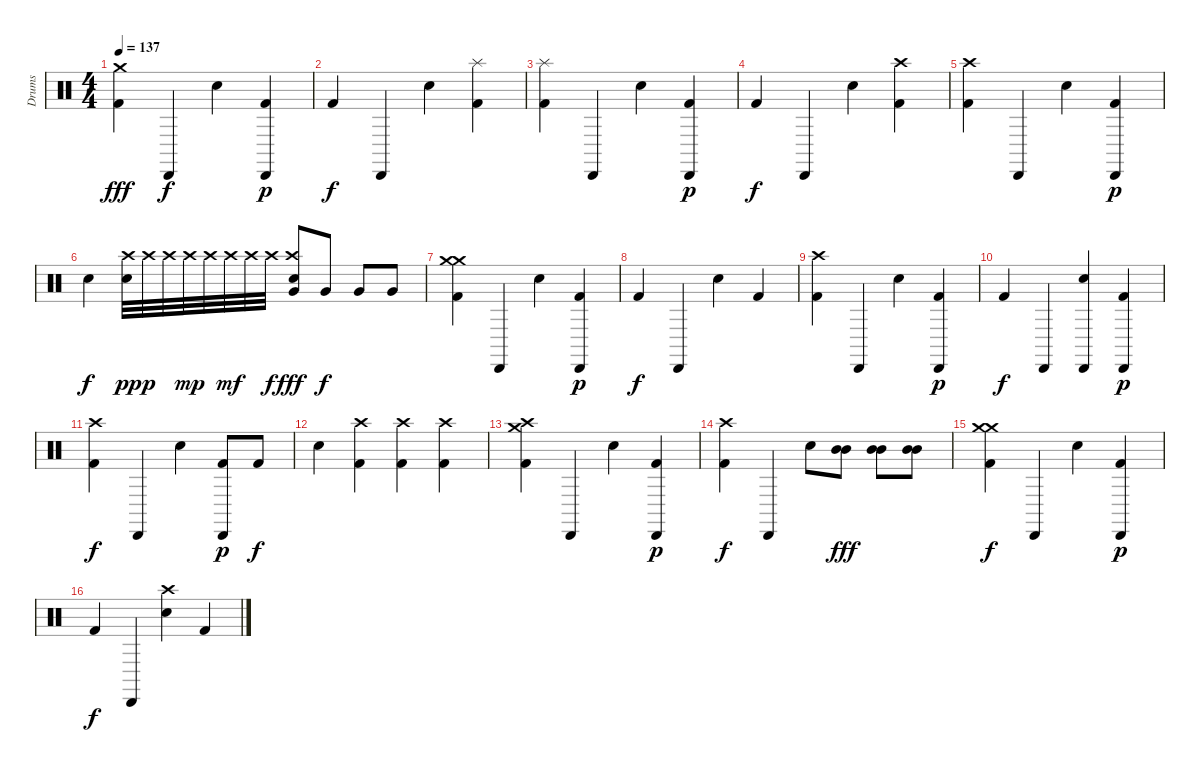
\track ("Drums" "Drums") {instrument percussion}
\staff {score}
\articulation defaults
\ts (4 4)
\tempo 137
\clef neutral
\ks c
("Crash medium (hit)" "Kick (hit) 2").4{dy fff} "Cabasa (hit)".4{dy f} "Electric Snare (hit)".4 ("Cabasa (hit)" "Kick (hit) 2").4{dy p} |
"Kick (hit) 2".4{dy f} "Cabasa (hit)".4 "Electric Snare (hit)".4 ("Splash (hit)" "Kick (hit) 2").4 |
("Splash (hit)" "Kick (hit) 2").4 "Cabasa (hit)".4 "Electric Snare (hit)".4 ("Cabasa (hit)" "Kick (hit) 2").4{dy p} |
"Kick (hit) 2".4{dy f} "Cabasa (hit)".4 "Electric Snare (hit)".4 ("Crash high (hit)" "Kick (hit) 2").4 |
("Crash high (hit)" "Kick (hit) 2").4 "Cabasa (hit)".4 "Electric Snare (hit)".4 ("Cabasa (hit)" "Kick (hit) 2").4{dy p} |
"Electric Snare (hit)".4{dy f} ("Crash high (hit)" "Electric Snare (hit)").32{dy pp} "Crash high (hit)".32{dy p} "Crash high (hit)".32 "Crash high (hit)".32{dy mp} "Crash high (hit)".32 "Crash high (hit)".32{dy mf} "Crash high (hit)".32 "Crash high (hit)".32{dy f} ("Crash high (hit)" "Very Low Tom (hit)" "Electric Snare (hit)").8{dy fff} "Very Low Tom (hit)".8{dy f} "Very Low Tom (hit)".8 "Very Low Tom (hit)".8 |
("Crash medium (hit)" "Crash medium (hit)" "Kick (hit) 2").4 "Cabasa (hit)".4 "Electric Snare (hit)".4 ("Cabasa (hit)" "Kick (hit) 2").4{dy p} |
"Kick (hit) 2".4{dy f} "Cabasa (hit)".4 "Electric Snare (hit)".4 "Kick (hit) 2".4 |
("Crash high (hit)" "Kick (hit) 2").4 "Cabasa (hit)".4 "Electric Snare (hit)".4 ("Cabasa (hit)" "Kick (hit) 2").4{dy p} |
"Kick (hit) 2".4{dy f} "Cabasa (hit)".4 ("Cabasa (hit)" "Electric Snare (hit)").4 ("Cabasa (hit)" "Kick (hit) 2").4{dy p} |
("Crash high (hit)" "Kick (hit) 2").4{dy f} "Cabasa (hit)".4 "Electric Snare (hit)".4 ("Cabasa (hit)" "Kick (hit) 2").8{dy p} "Kick (hit) 2".8{dy f} |
"Electric Snare (hit)".4 ("Crash high (hit)" "Kick (hit) 2").4 ("Crash high (hit)" "Kick (hit) 2").4 ("Crash high (hit)" "Kick (hit) 2").4 |
("Crash high (hit)" "Crash medium (hit)" "Kick (hit) 2").4 "Cabasa (hit)".4 "Electric Snare (hit)".4 ("Cabasa (hit)" "Kick (hit) 2").4{dy p} |
("Crash high (hit)" "Kick (hit) 2").4{dy f} "Cabasa (hit)".4 "Electric Snare (hit)".8 ("Mid Tom (hit)" "Mid Tom (hit)").8{dy fff} ("Mid Tom (hit)" "Mid Tom (hit)").8 ("Mid Tom (hit)" "Mid Tom (hit)").8 |
("Crash medium (hit)" "Crash medium (hit)" "Kick (hit) 2").4{dy f} "Cabasa (hit)".4 "Electric Snare (hit)".4 ("Cabasa (hit)" "Kick (hit) 2").4{dy p} |
"Kick (hit) 2".4{dy f} "Cabasa (hit)".4 ("Crash high (hit)" "Electric Snare (hit)").4 "Kick (hit) 2".4
